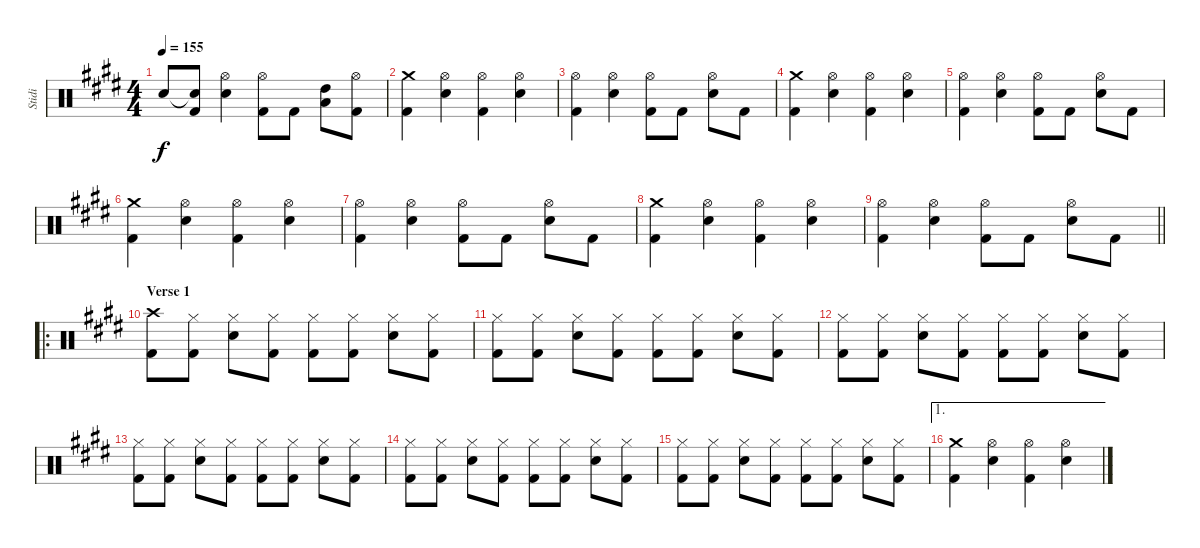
\track ("Stidi" "Stidi") {instrument percussion}
\staff {score}
\articulation defaults
\ts (4 4)
\tempo 155
\clef neutral
\ks e "Snare (hit)"{t}.8{dy f}
("Snare (hit)"{t} "Kick (hit) 2").8 ("Hi-Hat (open)" "Snare (hit) 2").4 ("Hi-Hat (open)" "Kick (hit) 2").8 "Kick (hit) 2".8 ("High Tom (hit)" "Low Tom (hit)").8 ("Hi-Hat (open)" "Kick (hit) 2").8 |
("Crash medium (hit)" "Kick (hit) 2").4 ("Hi-Hat (open)" "Snare (hit) 2").4 ("Hi-Hat (open)" "Kick (hit) 2").4 ("Hi-Hat (open)" "Snare (hit) 2").4 |
("Hi-Hat (open)" "Kick (hit) 2").4 ("Hi-Hat (open)" "Snare (hit) 2").4 ("Hi-Hat (open)" "Kick (hit) 2").8 "Kick (hit) 2".8 ("Hi-Hat (open)" "Snare (hit) 2").8 "Kick (hit) 2".8 |
("Crash medium (hit)" "Kick (hit) 2").4 ("Hi-Hat (open)" "Snare (hit) 2").4 ("Hi-Hat (open)" "Kick (hit) 2").4 ("Hi-Hat (open)" "Snare (hit) 2").4 |
("Hi-Hat (open)" "Kick (hit) 2").4 ("Hi-Hat (open)" "Snare (hit) 2").4 ("Hi-Hat (open)" "Kick (hit) 2").8 "Kick (hit) 2".8 ("Hi-Hat (open)" "Snare (hit) 2").8 "Kick (hit) 2".8 |
("Crash medium (hit)" "Kick (hit) 2").4 ("Hi-Hat (open)" "Snare (hit) 2").4 ("Hi-Hat (open)" "Kick (hit) 2").4 ("Hi-Hat (open)" "Snare (hit) 2").4 |
("Hi-Hat (open)" "Kick (hit) 2").4 ("Hi-Hat (open)" "Snare (hit) 2").4 ("Hi-Hat (open)" "Kick (hit) 2").8 "Kick (hit) 2".8 ("Hi-Hat (open)" "Snare (hit) 2").8 "Kick (hit) 2".8 |
("Crash medium (hit)" "Kick (hit) 2").4 ("Hi-Hat (open)" "Snare (hit) 2").4 ("Hi-Hat (open)" "Kick (hit) 2").4 ("Hi-Hat (open)" "Snare (hit) 2").4 |
\barLineRight lightlight
("Hi-Hat (open)" "Kick (hit) 2").4 ("Hi-Hat (open)" "Snare (hit) 2").4 ("Hi-Hat (open)" "Kick (hit) 2").8 "Kick (hit) 2".8 ("Hi-Hat (open)" "Snare (hit) 2").8 "Kick (hit) 2".8 |
\ro
\section ("" "Verse 1")
("Crash high (hit)" "Kick (hit) 2").8 ("Hi-Hat (closed)" "Kick (hit) 2").8 ("Hi-Hat (closed)" "Snare (hit) 2").8 ("Hi-Hat (closed)" "Kick (hit) 2").8 ("Hi-Hat (closed)" "Kick (hit) 2").8 ("Hi-Hat (closed)" "Kick (hit) 2").8 ("Hi-Hat (closed)" "Snare (hit) 2").8 ("Hi-Hat (closed)" "Kick (hit) 2").8 |
("Hi-Hat (closed)" "Kick (hit) 2").8 ("Hi-Hat (closed)" "Kick (hit) 2").8 ("Hi-Hat (closed)" "Snare (hit) 2").8 ("Hi-Hat (closed)" "Kick (hit) 2").8 ("Hi-Hat (closed)" "Kick (hit) 2").8 ("Hi-Hat (closed)" "Kick (hit) 2").8 ("Hi-Hat (closed)" "Snare (hit) 2").8 ("Hi-Hat (closed)" "Kick (hit) 2").8 |
("Hi-Hat (closed)" "Kick (hit) 2").8 ("Hi-Hat (closed)" "Kick (hit) 2").8 ("Hi-Hat (closed)" "Snare (hit) 2").8 ("Hi-Hat (closed)" "Kick (hit) 2").8 ("Hi-Hat (closed)" "Kick (hit) 2").8 ("Hi-Hat (closed)" "Kick (hit) 2").8 ("Hi-Hat (closed)" "Snare (hit) 2").8 ("Hi-Hat (closed)" "Kick (hit) 2").8 |
("Hi-Hat (closed)" "Kick (hit) 2").8 ("Hi-Hat (closed)" "Kick (hit) 2").8 ("Hi-Hat (closed)" "Snare (hit) 2").8 ("Hi-Hat (closed)" "Kick (hit) 2").8 ("Hi-Hat (closed)" "Kick (hit) 2").8 ("Hi-Hat (closed)" "Kick (hit) 2").8 ("Hi-Hat (closed)" "Snare (hit) 2").8 ("Hi-Hat (closed)" "Kick (hit) 2").8 |
("Hi-Hat (closed)" "Kick (hit) 2").8 ("Hi-Hat (closed)" "Kick (hit) 2").8 ("Hi-Hat (closed)" "Snare (hit) 2").8 ("Hi-Hat (closed)" "Kick (hit) 2").8 ("Hi-Hat (closed)" "Kick (hit) 2").8 ("Hi-Hat (closed)" "Kick (hit) 2").8 ("Hi-Hat (closed)" "Snare (hit) 2").8 ("Hi-Hat (closed)" "Kick (hit) 2").8 |
("Hi-Hat (closed)" "Kick (hit) 2").8 ("Hi-Hat (closed)" "Kick (hit) 2").8 ("Hi-Hat (closed)" "Snare (hit) 2").8 ("Hi-Hat (closed)" "Kick (hit) 2").8 ("Hi-Hat (closed)" "Kick (hit) 2").8 ("Hi-Hat (closed)" "Kick (hit) 2").8 ("Hi-Hat (closed)" "Snare (hit) 2").8 ("Hi-Hat (closed)" "Kick (hit) 2").8 |
\ae 1
("Crash medium (hit)" "Kick (hit) 2").4 ("Hi-Hat (open)" "Snare (hit) 2").4 ("Hi-Hat (open)" "Kick (hit) 2").4 ("Hi-Hat (open)" "Snare (hit) 2").4
